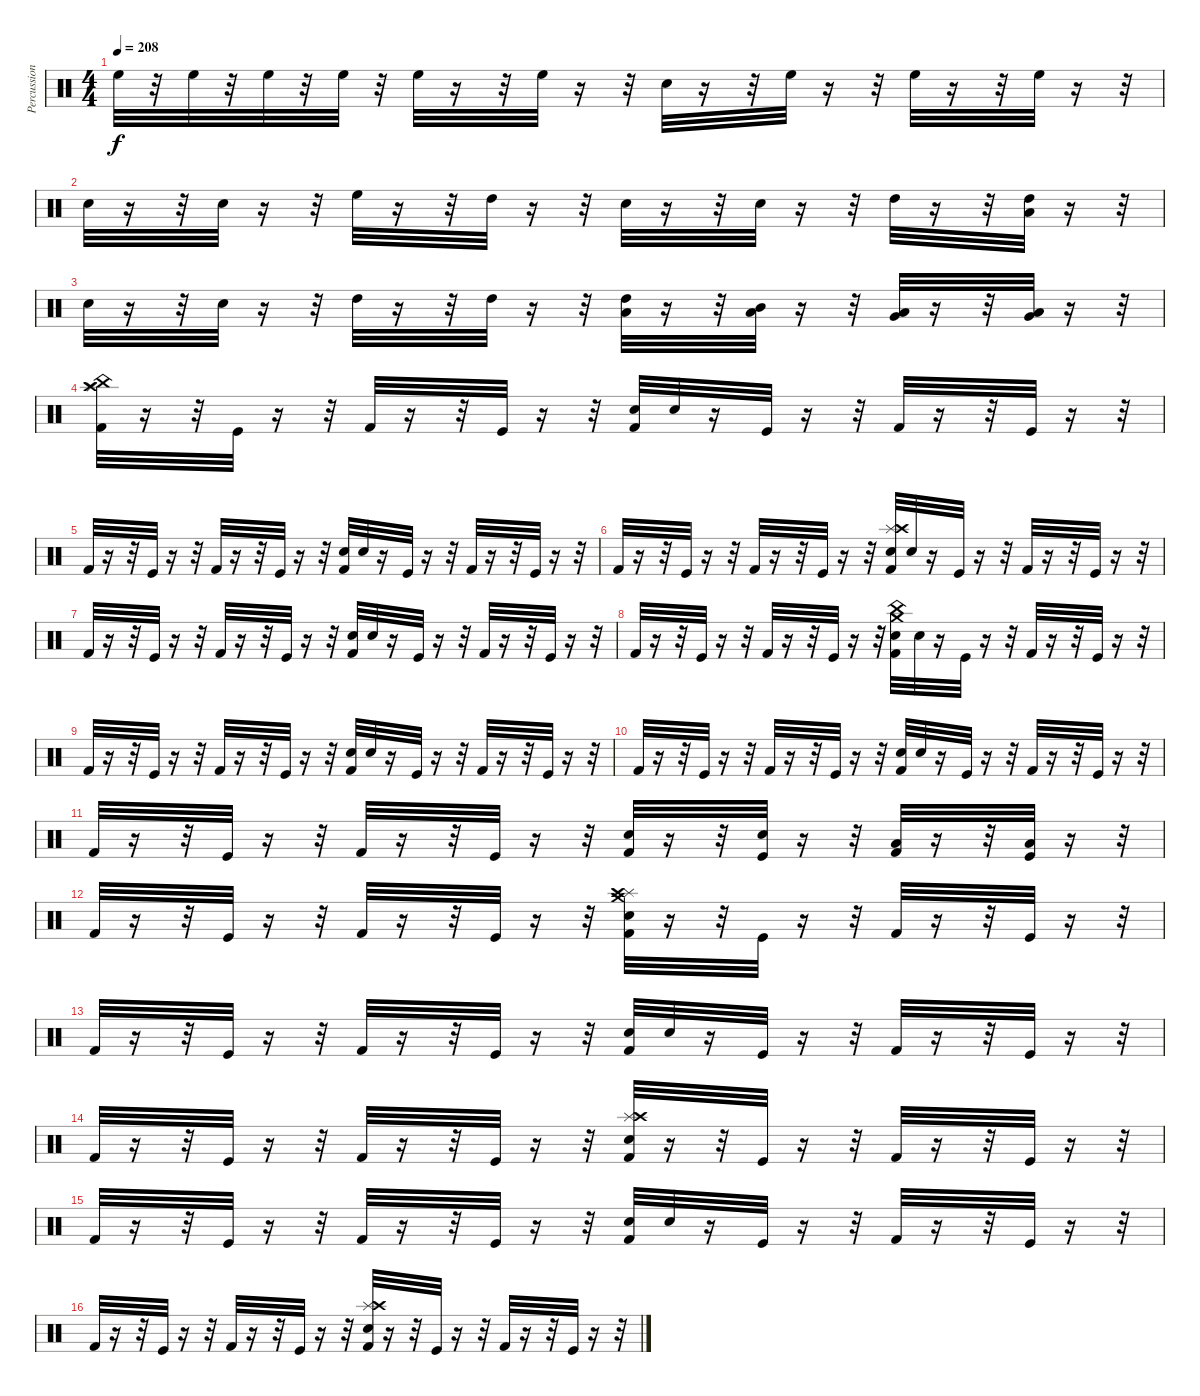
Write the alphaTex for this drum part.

\track ("Percussion" "Percussion") {instrument percussion}
\staff {score}
\articulation defaults
\ts (4 4)
\tempo 208
\clef neutral
\ks c "High Floor Tom (hit)".32{dy f}
r.32 "High Floor Tom (hit)".32 r.32 "High Floor Tom (hit)".32 r.32 "High Floor Tom (hit)".32 r.32 "High Floor Tom (hit)".32 r.16 r.32 "High Floor Tom (hit)".32 r.16 r.32 "Snare (hit) 2".32 r.16 r.32 "High Floor Tom (hit)".32 r.16 r.32 "High Floor Tom (hit)".32 r.16 r.32 "High Floor Tom (hit)".32 r.16 r.32 |
"Snare (hit) 2".32 r.16 r.32 "Snare (hit) 2".32 r.16 r.32 "High Floor Tom (hit)".32 r.16 r.32 "High Tom (hit)".32 r.16 r.32 "Snare (hit) 2".32 r.16 r.32 "Snare (hit) 2".32 r.16 r.32 "High Tom (hit)".32 r.16 r.32 ("Low Tom (hit)" "High Tom (hit)").32 r.16 r.32 |
"Snare (hit) 2".32 r.16 r.32 "Snare (hit) 2".32 r.16 r.32 "High Tom (hit)".32 r.16 r.32 "High Tom (hit)".32 r.16 r.32 ("Low Tom (hit)" "High Tom (hit)").32 r.16 r.32 ("Low Tom (hit)" "Mid Tom (hit)").32 r.16 r.32 ("Low Tom (hit)" "Very Low Tom (hit)").32 r.16 r.32 ("Low Floor Tom (hit)" "Very Low Tom (hit)").32 r.16 r.32 |
("China (hit)" "Crash high (hit)" "Splash (hit)" "Kick (hit) 2").32 r.16 r.32 "Kick (hit)".32 r.16 r.32 "Kick (hit) 2".32 r.16 r.32 "Kick (hit)".32 r.16 r.32 ("Snare (hit) 2" "Kick (hit) 2").32 "Snare (hit) 2".32 r.16 "Kick (hit)".32 r.16 r.32 "Kick (hit) 2".32 r.16 r.32 "Kick (hit)".32 r.16 r.32 |
"Kick (hit) 2".32 r.16 r.32 "Kick (hit)".32 r.16 r.32 "Kick (hit) 2".32 r.16 r.32 "Kick (hit)".32 r.16 r.32 ("Snare (hit) 2" "Kick (hit) 2").32 "Snare (hit) 2".32 r.16 "Kick (hit)".32 r.16 r.32 "Kick (hit) 2".32 r.16 r.32 "Kick (hit)".32 r.16 r.32 |
"Kick (hit) 2".32 r.16 r.32 "Kick (hit)".32 r.16 r.32 "Kick (hit) 2".32 r.16 r.32 "Kick (hit)".32 r.16 r.32 ("Splash (hit)" "Crash high (hit)" "Snare (hit) 2" "Kick (hit) 2").32 "Snare (hit) 2".32 r.16 "Kick (hit)".32 r.16 r.32 "Kick (hit) 2".32 r.16 r.32 "Kick (hit)".32 r.16 r.32 |
"Kick (hit) 2".32 r.16 r.32 "Kick (hit)".32 r.16 r.32 "Kick (hit) 2".32 r.16 r.32 "Kick (hit)".32 r.16 r.32 ("Snare (hit) 2" "Kick (hit) 2").32 "Snare (hit) 2".32 r.16 "Kick (hit)".32 r.16 r.32 "Kick (hit) 2".32 r.16 r.32 "Kick (hit)".32 r.16 r.32 |
"Kick (hit) 2".32 r.16 r.32 "Kick (hit)".32 r.16 r.32 "Kick (hit) 2".32 r.16 r.32 "Kick (hit)".32 r.16 r.32 ("China (hit)" "Crash medium (hit)" "Snare (hit) 2" "Kick (hit) 2").32 "Snare (hit) 2".32 r.16 "Kick (hit)".32 r.16 r.32 "Kick (hit) 2".32 r.16 r.32 "Kick (hit)".32 r.16 r.32 |
"Kick (hit) 2".32 r.16 r.32 "Kick (hit)".32 r.16 r.32 "Kick (hit) 2".32 r.16 r.32 "Kick (hit)".32 r.16 r.32 ("Snare (hit) 2" "Kick (hit) 2").32 "Snare (hit) 2".32 r.16 "Kick (hit)".32 r.16 r.32 "Kick (hit) 2".32 r.16 r.32 "Kick (hit)".32 r.16 r.32 |
"Kick (hit) 2".32 r.16 r.32 "Kick (hit)".32 r.16 r.32 "Kick (hit) 2".32 r.16 r.32 "Kick (hit)".32 r.16 r.32 ("Snare (hit) 2" "Kick (hit) 2").32 "Snare (hit) 2".32 r.16 "Kick (hit)".32 r.16 r.32 "Kick (hit) 2".32 r.16 r.32 "Kick (hit)".32 r.16 r.32 |
"Kick (hit) 2".32 r.16 r.32 "Kick (hit)".32 r.16 r.32 "Kick (hit) 2".32 r.16 r.32 "Kick (hit)".32 r.16 r.32 ("Snare (hit) 2" "Kick (hit) 2").32 r.16 r.32 ("Snare (hit) 2" "Kick (hit)").32 r.16 r.32 ("Low Tom (hit)" "Kick (hit) 2").32 r.16 r.32 ("Low Floor Tom (hit)" "Kick (hit)").32 r.16 r.32 |
"Kick (hit) 2".32 r.16 r.32 "Kick (hit)".32 r.16 r.32 "Kick (hit) 2".32 r.16 r.32 "Kick (hit)".32 r.16 r.32 ("Crash medium (hit)" "Splash (hit)" "Crash high (hit)" "Snare (hit) 2" "Kick (hit) 2").32 r.16 r.32 "Kick (hit)".32 r.16 r.32 "Kick (hit) 2".32 r.16 r.32 "Kick (hit)".32 r.16 r.32 |
"Kick (hit) 2".32 r.16 r.32 "Kick (hit)".32 r.16 r.32 "Kick (hit) 2".32 r.16 r.32 "Kick (hit)".32 r.16 r.32 ("Snare (hit) 2" "Kick (hit) 2").32 "Snare (hit) 2".32 r.16 "Kick (hit)".32 r.16 r.32 "Kick (hit) 2".32 r.16 r.32 "Kick (hit)".32 r.16 r.32 |
"Kick (hit) 2".32 r.16 r.32 "Kick (hit)".32 r.16 r.32 "Kick (hit) 2".32 r.16 r.32 "Kick (hit)".32 r.16 r.32 ("Splash (hit)" "Crash high (hit)" "Snare (hit) 2" "Kick (hit) 2").32 r.16 r.32 "Kick (hit)".32 r.16 r.32 "Kick (hit) 2".32 r.16 r.32 "Kick (hit)".32 r.16 r.32 |
"Kick (hit) 2".32 r.16 r.32 "Kick (hit)".32 r.16 r.32 "Kick (hit) 2".32 r.16 r.32 "Kick (hit)".32 r.16 r.32 ("Snare (hit) 2" "Kick (hit) 2").32 "Snare (hit) 2".32 r.16 "Kick (hit)".32 r.16 r.32 "Kick (hit) 2".32 r.16 r.32 "Kick (hit)".32 r.16 r.32 |
"Kick (hit) 2".32 r.16 r.32 "Kick (hit)".32 r.16 r.32 "Kick (hit) 2".32 r.16 r.32 "Kick (hit)".32 r.16 r.32 ("Splash (hit)" "Crash high (hit)" "Snare (hit) 2" "Kick (hit) 2").32 r.16 r.32 "Kick (hit)".32 r.16 r.32 "Kick (hit) 2".32 r.16 r.32 "Kick (hit)".32 r.16 r.32
